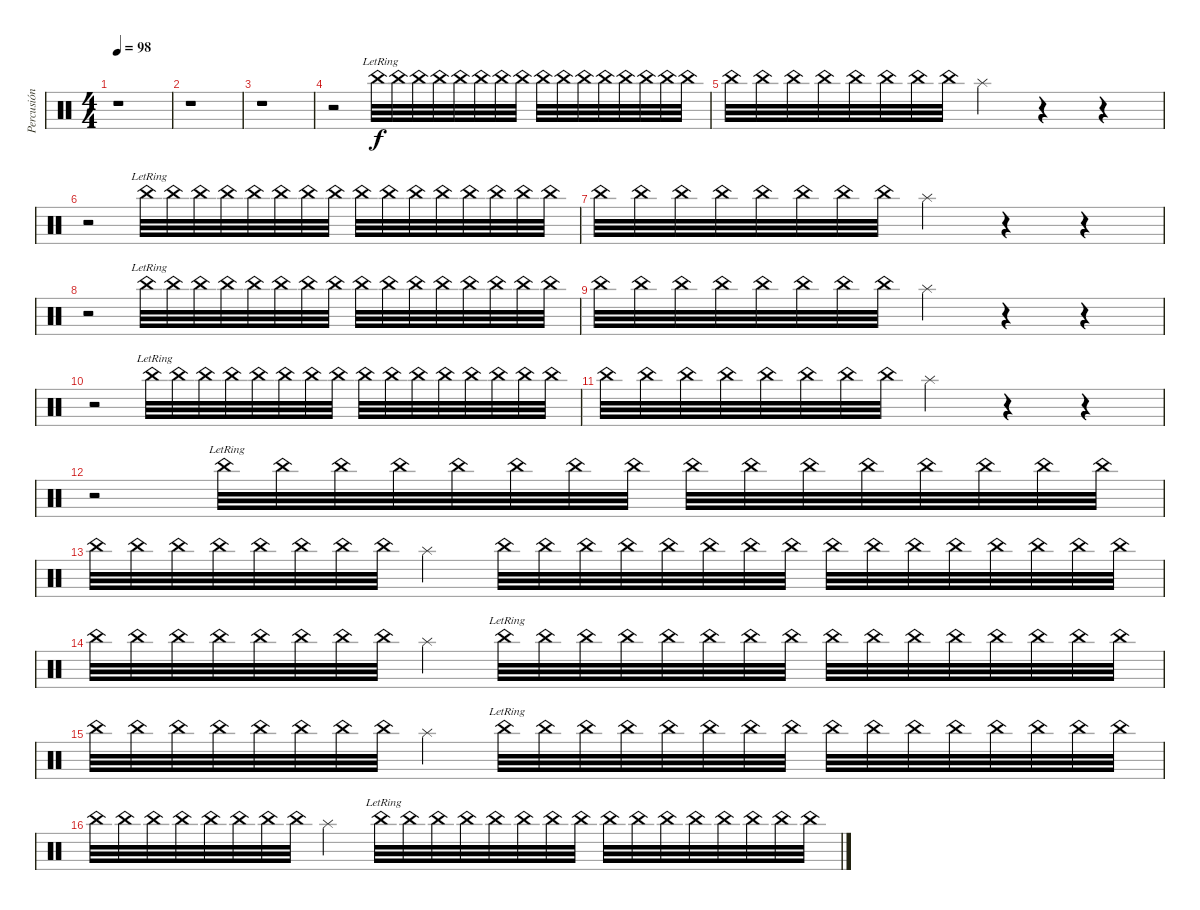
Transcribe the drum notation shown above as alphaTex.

\track ("Percusión" "Percusión") {instrument percussion}
\staff {score}
\articulation defaults
\ts (4 4)
\tempo 98
\clef neutral
\ks c
r.1{dy f} |
r.1 |
r.1 |
r.2{volume 0} "China (hit)"{lr}.32{volume 16} "China (hit)".32 "China (hit)".32 "China (hit)".32 "China (hit)".32 "China (hit)".32 "China (hit)".32 "China (hit)".32 "China (hit)".32 "China (hit)".32 "China (hit)".32 "China (hit)".32 "China (hit)".32 "China (hit)".32 "China (hit)".32 "China (hit)".32 |
"China (hit)".32 "China (hit)".32 "China (hit)".32 "China (hit)".32 "China (hit)".32 "China (hit)".32 "China (hit)".32 "China (hit)".32 "Splash (hit)".4{volume 0} r.4 r.4 |
r.2 "China (hit)"{lr}.32{volume 16} "China (hit)".32 "China (hit)".32 "China (hit)".32 "China (hit)".32 "China (hit)".32 "China (hit)".32 "China (hit)".32 "China (hit)".32 "China (hit)".32 "China (hit)".32 "China (hit)".32 "China (hit)".32 "China (hit)".32 "China (hit)".32 "China (hit)".32 |
"China (hit)".32 "China (hit)".32 "China (hit)".32 "China (hit)".32 "China (hit)".32 "China (hit)".32 "China (hit)".32 "China (hit)".32 "Splash (hit)".4{volume 0} r.4 r.4 |
r.2 "China (hit)"{lr}.32{volume 16} "China (hit)".32 "China (hit)".32 "China (hit)".32 "China (hit)".32 "China (hit)".32 "China (hit)".32 "China (hit)".32 "China (hit)".32 "China (hit)".32 "China (hit)".32 "China (hit)".32 "China (hit)".32 "China (hit)".32 "China (hit)".32 "China (hit)".32 |
"China (hit)".32 "China (hit)".32 "China (hit)".32 "China (hit)".32 "China (hit)".32 "China (hit)".32 "China (hit)".32 "China (hit)".32 "Splash (hit)".4{volume 0} r.4 r.4 |
r.2 "China (hit)"{lr}.32{volume 16} "China (hit)".32 "China (hit)".32 "China (hit)".32 "China (hit)".32 "China (hit)".32 "China (hit)".32 "China (hit)".32 "China (hit)".32 "China (hit)".32 "China (hit)".32 "China (hit)".32 "China (hit)".32 "China (hit)".32 "China (hit)".32 "China (hit)".32 |
"China (hit)".32 "China (hit)".32 "China (hit)".32 "China (hit)".32 "China (hit)".32 "China (hit)".32 "China (hit)".32 "China (hit)".32 "Splash (hit)".4{volume 0} r.4 r.4 |
r.2 "China (hit)"{lr}.32{volume 16} "China (hit)".32 "China (hit)".32 "China (hit)".32 "China (hit)".32 "China (hit)".32 "China (hit)".32 "China (hit)".32 "China (hit)".32 "China (hit)".32 "China (hit)".32 "China (hit)".32 "China (hit)".32 "China (hit)".32 "China (hit)".32 "China (hit)".32 |
"China (hit)".32 "China (hit)".32 "China (hit)".32 "China (hit)".32 "China (hit)".32 "China (hit)".32 "China (hit)".32 "China (hit)".32 "Splash (hit)".4{volume 0} "China (hit)".32{volume 16} "China (hit)".32 "China (hit)".32 "China (hit)".32 "China (hit)".32 "China (hit)".32 "China (hit)".32 "China (hit)".32 "China (hit)".32 "China (hit)".32 "China (hit)".32 "China (hit)".32 "China (hit)".32 "China (hit)".32 "China (hit)".32 "China (hit)".32 |
"China (hit)".32 "China (hit)".32 "China (hit)".32 "China (hit)".32 "China (hit)".32 "China (hit)".32 "China (hit)".32 "China (hit)".32 "Splash (hit)".4{volume 0} "China (hit)"{lr}.32{volume 16} "China (hit)".32 "China (hit)".32 "China (hit)".32 "China (hit)".32 "China (hit)".32 "China (hit)".32 "China (hit)".32 "China (hit)".32 "China (hit)".32 "China (hit)".32 "China (hit)".32 "China (hit)".32 "China (hit)".32 "China (hit)".32 "China (hit)".32 |
"China (hit)".32 "China (hit)".32 "China (hit)".32 "China (hit)".32 "China (hit)".32 "China (hit)".32 "China (hit)".32 "China (hit)".32 "Splash (hit)".4{volume 0} "China (hit)"{lr}.32{volume 16} "China (hit)".32 "China (hit)".32 "China (hit)".32 "China (hit)".32 "China (hit)".32 "China (hit)".32 "China (hit)".32 "China (hit)".32 "China (hit)".32 "China (hit)".32 "China (hit)".32 "China (hit)".32 "China (hit)".32 "China (hit)".32 "China (hit)".32 |
"China (hit)".32 "China (hit)".32 "China (hit)".32 "China (hit)".32 "China (hit)".32 "China (hit)".32 "China (hit)".32 "China (hit)".32 "Splash (hit)".4{volume 0} "China (hit)"{lr}.32{volume 16} "China (hit)".32 "China (hit)".32 "China (hit)".32 "China (hit)".32 "China (hit)".32 "China (hit)".32 "China (hit)".32 "China (hit)".32 "China (hit)".32 "China (hit)".32 "China (hit)".32 "China (hit)".32 "China (hit)".32 "China (hit)".32 "China (hit)".32
